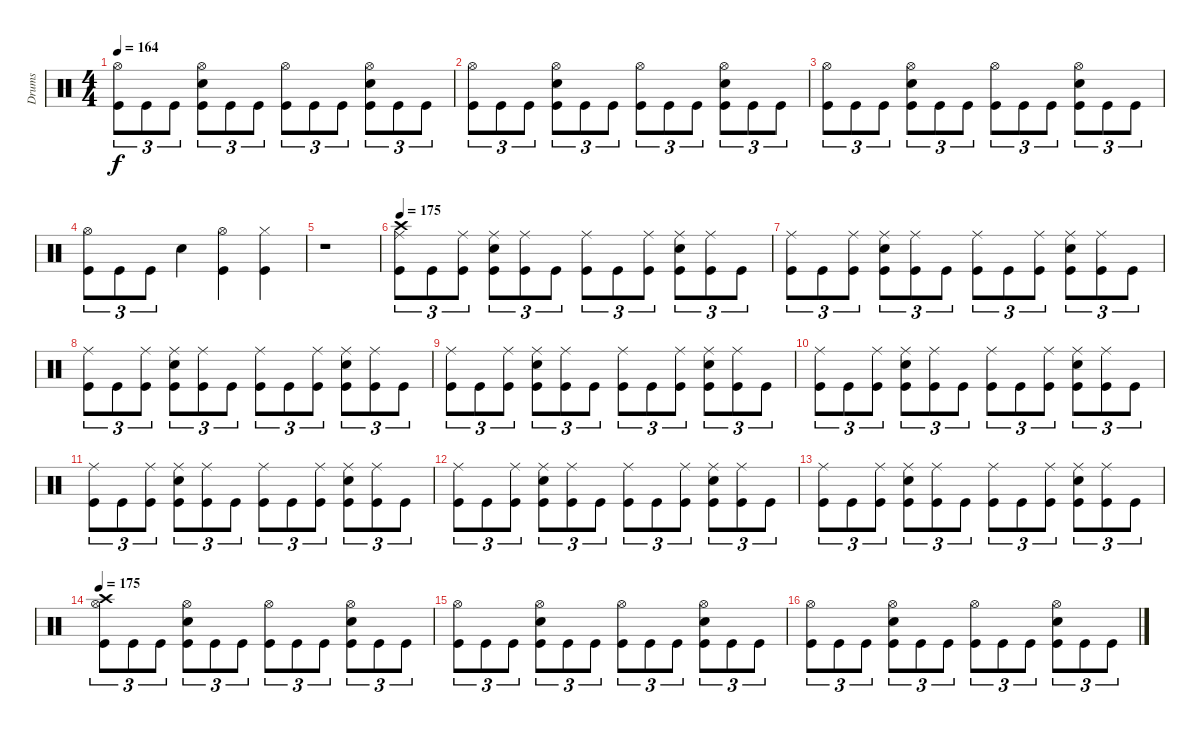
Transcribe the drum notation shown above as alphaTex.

\track ("Drums" "Drums") {instrument percussion}
\staff {score}
\articulation defaults
\ts (4 4)
\tempo 164
\clef neutral
\ks c
("Hi-Hat (open)" "Kick (hit)").8{tu (3 2) dy f} "Kick (hit)".8{tu (3 2)} "Kick (hit)".8{tu (3 2)} ("Hi-Hat (open)" "Electric Snare (hit)" "Kick (hit)").8{tu (3 2)} "Kick (hit)".8{tu (3 2)} "Kick (hit)".8{tu (3 2)} ("Hi-Hat (open)" "Kick (hit)").8{tu (3 2)} "Kick (hit)".8{tu (3 2)} "Kick (hit)".8{tu (3 2)} ("Hi-Hat (open)" "Electric Snare (hit)" "Kick (hit)").8{tu (3 2)} "Kick (hit)".8{tu (3 2)} "Kick (hit)".8{tu (3 2)} |
("Hi-Hat (open)" "Kick (hit)").8{tu (3 2)} "Kick (hit)".8{tu (3 2)} "Kick (hit)".8{tu (3 2)} ("Hi-Hat (open)" "Electric Snare (hit)" "Kick (hit)").8{tu (3 2)} "Kick (hit)".8{tu (3 2)} "Kick (hit)".8{tu (3 2)} ("Hi-Hat (open)" "Kick (hit)").8{tu (3 2)} "Kick (hit)".8{tu (3 2)} "Kick (hit)".8{tu (3 2)} ("Hi-Hat (open)" "Electric Snare (hit)" "Kick (hit)").8{tu (3 2)} "Kick (hit)".8{tu (3 2)} "Kick (hit)".8{tu (3 2)} |
("Hi-Hat (open)" "Kick (hit)").8{tu (3 2)} "Kick (hit)".8{tu (3 2)} "Kick (hit)".8{tu (3 2)} ("Hi-Hat (open)" "Electric Snare (hit)" "Kick (hit)").8{tu (3 2)} "Kick (hit)".8{tu (3 2)} "Kick (hit)".8{tu (3 2)} ("Hi-Hat (open)" "Kick (hit)").8{tu (3 2)} "Kick (hit)".8{tu (3 2)} "Kick (hit)".8{tu (3 2)} ("Hi-Hat (open)" "Electric Snare (hit)" "Kick (hit)").8{tu (3 2)} "Kick (hit)".8{tu (3 2)} "Kick (hit)".8{tu (3 2)} |
("Hi-Hat (open)" "Kick (hit)").8{tu (3 2)} "Kick (hit)".8{tu (3 2)} "Kick (hit)".8{tu (3 2)} "Electric Snare (hit)".4 ("Hi-Hat (open)" "Kick (hit)").4 ("Hi-Hat (closed)" "Kick (hit)").4 |
r.1 |
\tempo 175
("Crash high (hit)" "Ride (middle)" "Kick (hit)").8{tu (3 2)} "Kick (hit)".8{tu (3 2)} ("Ride (middle)" "Kick (hit)").8{tu (3 2)} ("Ride (middle)" "Electric Snare (hit)" "Kick (hit)").8{tu (3 2)} ("Ride (middle)" "Kick (hit)").8{tu (3 2)} "Kick (hit)".8{tu (3 2)} ("Ride (middle)" "Kick (hit)").8{tu (3 2)} "Kick (hit)".8{tu (3 2)} ("Ride (middle)" "Kick (hit)").8{tu (3 2)} ("Ride (middle)" "Electric Snare (hit)" "Kick (hit)").8{tu (3 2)} ("Ride (middle)" "Kick (hit)").8{tu (3 2)} "Kick (hit)".8{tu (3 2)} |
("Ride (middle)" "Kick (hit)").8{tu (3 2)} "Kick (hit)".8{tu (3 2)} ("Ride (middle)" "Kick (hit)").8{tu (3 2)} ("Ride (middle)" "Electric Snare (hit)" "Kick (hit)").8{tu (3 2)} ("Ride (middle)" "Kick (hit)").8{tu (3 2)} "Kick (hit)".8{tu (3 2)} ("Ride (middle)" "Kick (hit)").8{tu (3 2)} "Kick (hit)".8{tu (3 2)} ("Ride (middle)" "Kick (hit)").8{tu (3 2)} ("Ride (middle)" "Electric Snare (hit)" "Kick (hit)").8{tu (3 2)} ("Ride (middle)" "Kick (hit)").8{tu (3 2)} "Kick (hit)".8{tu (3 2)} |
("Ride (middle)" "Kick (hit)").8{tu (3 2)} "Kick (hit)".8{tu (3 2)} ("Ride (middle)" "Kick (hit)").8{tu (3 2)} ("Ride (middle)" "Electric Snare (hit)" "Kick (hit)").8{tu (3 2)} ("Ride (middle)" "Kick (hit)").8{tu (3 2)} "Kick (hit)".8{tu (3 2)} ("Ride (middle)" "Kick (hit)").8{tu (3 2)} "Kick (hit)".8{tu (3 2)} ("Ride (middle)" "Kick (hit)").8{tu (3 2)} ("Ride (middle)" "Electric Snare (hit)" "Kick (hit)").8{tu (3 2)} ("Ride (middle)" "Kick (hit)").8{tu (3 2)} "Kick (hit)".8{tu (3 2)} |
("Ride (middle)" "Kick (hit)").8{tu (3 2)} "Kick (hit)".8{tu (3 2)} ("Ride (middle)" "Kick (hit)").8{tu (3 2)} ("Ride (middle)" "Electric Snare (hit)" "Kick (hit)").8{tu (3 2)} ("Ride (middle)" "Kick (hit)").8{tu (3 2)} "Kick (hit)".8{tu (3 2)} ("Ride (middle)" "Kick (hit)").8{tu (3 2)} "Kick (hit)".8{tu (3 2)} ("Ride (middle)" "Kick (hit)").8{tu (3 2)} ("Ride (middle)" "Electric Snare (hit)" "Kick (hit)").8{tu (3 2)} ("Ride (middle)" "Kick (hit)").8{tu (3 2)} "Kick (hit)".8{tu (3 2)} |
("Ride (middle)" "Kick (hit)").8{tu (3 2)} "Kick (hit)".8{tu (3 2)} ("Ride (middle)" "Kick (hit)").8{tu (3 2)} ("Ride (middle)" "Electric Snare (hit)" "Kick (hit)").8{tu (3 2)} ("Ride (middle)" "Kick (hit)").8{tu (3 2)} "Kick (hit)".8{tu (3 2)} ("Ride (middle)" "Kick (hit)").8{tu (3 2)} "Kick (hit)".8{tu (3 2)} ("Ride (middle)" "Kick (hit)").8{tu (3 2)} ("Ride (middle)" "Electric Snare (hit)" "Kick (hit)").8{tu (3 2)} ("Ride (middle)" "Kick (hit)").8{tu (3 2)} "Kick (hit)".8{tu (3 2)} |
("Ride (middle)" "Kick (hit)").8{tu (3 2)} "Kick (hit)".8{tu (3 2)} ("Ride (middle)" "Kick (hit)").8{tu (3 2)} ("Ride (middle)" "Electric Snare (hit)" "Kick (hit)").8{tu (3 2)} ("Ride (middle)" "Kick (hit)").8{tu (3 2)} "Kick (hit)".8{tu (3 2)} ("Ride (middle)" "Kick (hit)").8{tu (3 2)} "Kick (hit)".8{tu (3 2)} ("Ride (middle)" "Kick (hit)").8{tu (3 2)} ("Ride (middle)" "Electric Snare (hit)" "Kick (hit)").8{tu (3 2)} ("Ride (middle)" "Kick (hit)").8{tu (3 2)} "Kick (hit)".8{tu (3 2)} |
("Ride (middle)" "Kick (hit)").8{tu (3 2)} "Kick (hit)".8{tu (3 2)} ("Ride (middle)" "Kick (hit)").8{tu (3 2)} ("Ride (middle)" "Electric Snare (hit)" "Kick (hit)").8{tu (3 2)} ("Ride (middle)" "Kick (hit)").8{tu (3 2)} "Kick (hit)".8{tu (3 2)} ("Ride (middle)" "Kick (hit)").8{tu (3 2)} "Kick (hit)".8{tu (3 2)} ("Ride (middle)" "Kick (hit)").8{tu (3 2)} ("Ride (middle)" "Electric Snare (hit)" "Kick (hit)").8{tu (3 2)} ("Ride (middle)" "Kick (hit)").8{tu (3 2)} "Kick (hit)".8{tu (3 2)} |
("Ride (middle)" "Kick (hit)").8{tu (3 2)} "Kick (hit)".8{tu (3 2)} ("Ride (middle)" "Kick (hit)").8{tu (3 2)} ("Ride (middle)" "Electric Snare (hit)" "Kick (hit)").8{tu (3 2)} ("Ride (middle)" "Kick (hit)").8{tu (3 2)} "Kick (hit)".8{tu (3 2)} ("Ride (middle)" "Kick (hit)").8{tu (3 2)} "Kick (hit)".8{tu (3 2)} ("Ride (middle)" "Kick (hit)").8{tu (3 2)} ("Ride (middle)" "Electric Snare (hit)" "Kick (hit)").8{tu (3 2)} ("Ride (middle)" "Kick (hit)").8{tu (3 2)} "Kick (hit)".8{tu (3 2)} |
\tempo 175
("Crash high (hit)" "Hi-Hat (open)" "Kick (hit)").8{tu (3 2)} "Kick (hit)".8{tu (3 2)} "Kick (hit)".8{tu (3 2)} ("Hi-Hat (open)" "Electric Snare (hit)" "Kick (hit)").8{tu (3 2)} "Kick (hit)".8{tu (3 2)} "Kick (hit)".8{tu (3 2)} ("Hi-Hat (open)" "Kick (hit)").8{tu (3 2)} "Kick (hit)".8{tu (3 2)} "Kick (hit)".8{tu (3 2)} ("Hi-Hat (open)" "Electric Snare (hit)" "Kick (hit)").8{tu (3 2)} "Kick (hit)".8{tu (3 2)} "Kick (hit)".8{tu (3 2)} |
("Hi-Hat (open)" "Kick (hit)").8{tu (3 2)} "Kick (hit)".8{tu (3 2)} "Kick (hit)".8{tu (3 2)} ("Hi-Hat (open)" "Electric Snare (hit)" "Kick (hit)").8{tu (3 2)} "Kick (hit)".8{tu (3 2)} "Kick (hit)".8{tu (3 2)} ("Hi-Hat (open)" "Kick (hit)").8{tu (3 2)} "Kick (hit)".8{tu (3 2)} "Kick (hit)".8{tu (3 2)} ("Hi-Hat (open)" "Electric Snare (hit)" "Kick (hit)").8{tu (3 2)} "Kick (hit)".8{tu (3 2)} "Kick (hit)".8{tu (3 2)} |
("Hi-Hat (open)" "Kick (hit)").8{tu (3 2)} "Kick (hit)".8{tu (3 2)} "Kick (hit)".8{tu (3 2)} ("Hi-Hat (open)" "Electric Snare (hit)" "Kick (hit)").8{tu (3 2)} "Kick (hit)".8{tu (3 2)} "Kick (hit)".8{tu (3 2)} ("Hi-Hat (open)" "Kick (hit)").8{tu (3 2)} "Kick (hit)".8{tu (3 2)} "Kick (hit)".8{tu (3 2)} ("Hi-Hat (open)" "Electric Snare (hit)" "Kick (hit)").8{tu (3 2)} "Kick (hit)".8{tu (3 2)} "Kick (hit)".8{tu (3 2)}
